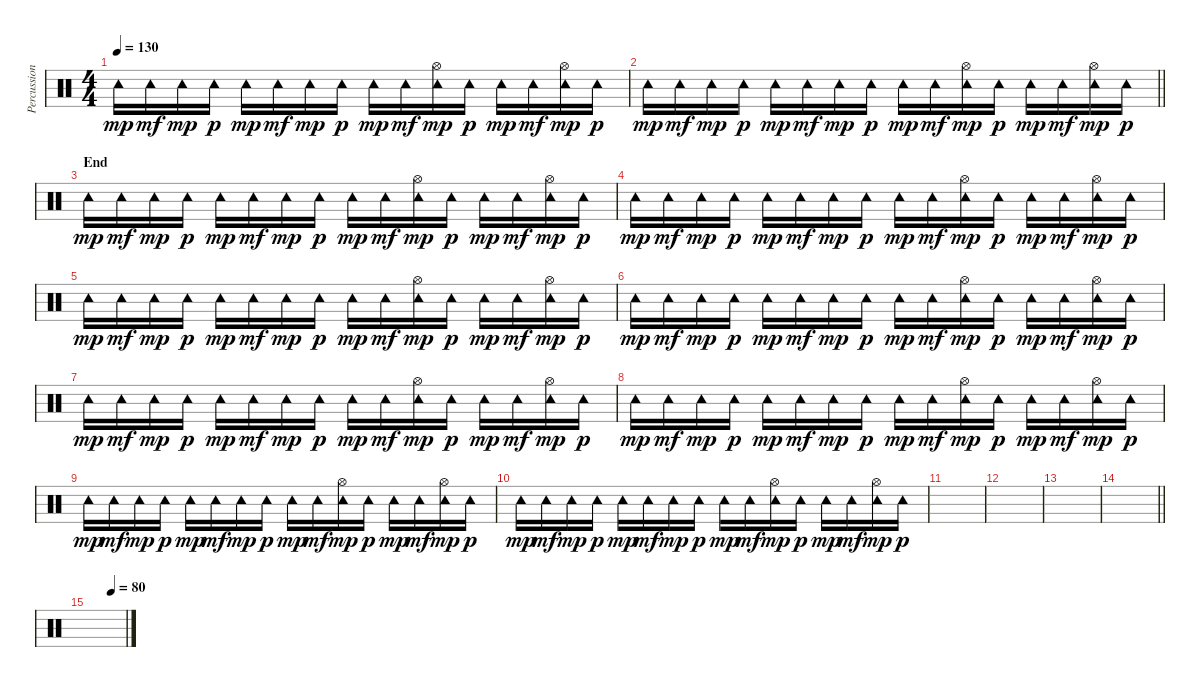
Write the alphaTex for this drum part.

\track ("Percussion (Programmed)" "Percussion") {instrument percussion}
\staff {score}
\articulation defaults
\ts (4 4)
\tempo 130
\clef neutral
\ks c "Tambourine (hit)".16{dy mp} "Tambourine (hit)".16{dy mf} "Tambourine (hit)".16{dy mp} "Tambourine (hit)".16{dy p} "Tambourine (hit)".16{dy mp} "Tambourine (hit)".16{dy mf} "Tambourine (hit)".16{dy mp} "Tambourine (hit)".16{dy p} "Tambourine (hit)".16{dy mp} "Tambourine (hit)".16{dy mf}
("Tambourine (hit)" "Hi-Hat (open)").16{dy mp} "Tambourine (hit)".16{dy p} "Tambourine (hit)".16{dy mp} "Tambourine (hit)".16{dy mf} ("Tambourine (hit)" "Hi-Hat (open)").16{dy mp} "Tambourine (hit)".16{dy p} |
\barLineRight lightlight "Tambourine (hit)".16{dy mp} "Tambourine (hit)".16{dy mf} "Tambourine (hit)".16{dy mp} "Tambourine (hit)".16{dy p} "Tambourine (hit)".16{dy mp} "Tambourine (hit)".16{dy mf} "Tambourine (hit)".16{dy mp} "Tambourine (hit)".16{dy p} "Tambourine (hit)".16{dy mp} "Tambourine (hit)".16{dy mf}
("Tambourine (hit)" "Hi-Hat (open)").16{dy mp} "Tambourine (hit)".16{dy p} "Tambourine (hit)".16{dy mp} "Tambourine (hit)".16{dy mf} ("Tambourine (hit)" "Hi-Hat (open)").16{dy mp} "Tambourine (hit)".16{dy p} |
\section ("" "End")
"Tambourine (hit)".16{dy mp} "Tambourine (hit)".16{dy mf} "Tambourine (hit)".16{dy mp} "Tambourine (hit)".16{dy p} "Tambourine (hit)".16{dy mp} "Tambourine (hit)".16{dy mf} "Tambourine (hit)".16{dy mp} "Tambourine (hit)".16{dy p} "Tambourine (hit)".16{dy mp} "Tambourine (hit)".16{dy mf} ("Tambourine (hit)" "Hi-Hat (open)").16{dy mp} "Tambourine (hit)".16{dy p} "Tambourine (hit)".16{dy mp} "Tambourine (hit)".16{dy mf} ("Tambourine (hit)" "Hi-Hat (open)").16{dy mp} "Tambourine (hit)".16{dy p} |
"Tambourine (hit)".16{dy mp} "Tambourine (hit)".16{dy mf} "Tambourine (hit)".16{dy mp} "Tambourine (hit)".16{dy p} "Tambourine (hit)".16{dy mp} "Tambourine (hit)".16{dy mf} "Tambourine (hit)".16{dy mp} "Tambourine (hit)".16{dy p} "Tambourine (hit)".16{dy mp} "Tambourine (hit)".16{dy mf} ("Tambourine (hit)" "Hi-Hat (open)").16{dy mp} "Tambourine (hit)".16{dy p} "Tambourine (hit)".16{dy mp} "Tambourine (hit)".16{dy mf} ("Tambourine (hit)" "Hi-Hat (open)").16{dy mp} "Tambourine (hit)".16{dy p} |
"Tambourine (hit)".16{dy mp} "Tambourine (hit)".16{dy mf} "Tambourine (hit)".16{dy mp} "Tambourine (hit)".16{dy p} "Tambourine (hit)".16{dy mp} "Tambourine (hit)".16{dy mf} "Tambourine (hit)".16{dy mp} "Tambourine (hit)".16{dy p} "Tambourine (hit)".16{dy mp} "Tambourine (hit)".16{dy mf} ("Tambourine (hit)" "Hi-Hat (open)").16{dy mp} "Tambourine (hit)".16{dy p} "Tambourine (hit)".16{dy mp} "Tambourine (hit)".16{dy mf} ("Tambourine (hit)" "Hi-Hat (open)").16{dy mp} "Tambourine (hit)".16{dy p} |
"Tambourine (hit)".16{dy mp} "Tambourine (hit)".16{dy mf} "Tambourine (hit)".16{dy mp} "Tambourine (hit)".16{dy p} "Tambourine (hit)".16{dy mp} "Tambourine (hit)".16{dy mf} "Tambourine (hit)".16{dy mp} "Tambourine (hit)".16{dy p} "Tambourine (hit)".16{dy mp} "Tambourine (hit)".16{dy mf} ("Tambourine (hit)" "Hi-Hat (open)").16{dy mp} "Tambourine (hit)".16{dy p} "Tambourine (hit)".16{dy mp} "Tambourine (hit)".16{dy mf} ("Tambourine (hit)" "Hi-Hat (open)").16{dy mp} "Tambourine (hit)".16{dy p} |
"Tambourine (hit)".16{dy mp} "Tambourine (hit)".16{dy mf} "Tambourine (hit)".16{dy mp} "Tambourine (hit)".16{dy p} "Tambourine (hit)".16{dy mp} "Tambourine (hit)".16{dy mf} "Tambourine (hit)".16{dy mp} "Tambourine (hit)".16{dy p} "Tambourine (hit)".16{dy mp} "Tambourine (hit)".16{dy mf} ("Tambourine (hit)" "Hi-Hat (open)").16{dy mp} "Tambourine (hit)".16{dy p} "Tambourine (hit)".16{dy mp} "Tambourine (hit)".16{dy mf} ("Tambourine (hit)" "Hi-Hat (open)").16{dy mp} "Tambourine (hit)".16{dy p} |
"Tambourine (hit)".16{dy mp} "Tambourine (hit)".16{dy mf} "Tambourine (hit)".16{dy mp} "Tambourine (hit)".16{dy p} "Tambourine (hit)".16{dy mp} "Tambourine (hit)".16{dy mf} "Tambourine (hit)".16{dy mp} "Tambourine (hit)".16{dy p} "Tambourine (hit)".16{dy mp} "Tambourine (hit)".16{dy mf} ("Tambourine (hit)" "Hi-Hat (open)").16{dy mp} "Tambourine (hit)".16{dy p} "Tambourine (hit)".16{dy mp} "Tambourine (hit)".16{dy mf} ("Tambourine (hit)" "Hi-Hat (open)").16{dy mp} "Tambourine (hit)".16{dy p} |
"Tambourine (hit)".16{dy mp} "Tambourine (hit)".16{dy mf} "Tambourine (hit)".16{dy mp} "Tambourine (hit)".16{dy p} "Tambourine (hit)".16{dy mp} "Tambourine (hit)".16{dy mf} "Tambourine (hit)".16{dy mp} "Tambourine (hit)".16{dy p} "Tambourine (hit)".16{dy mp} "Tambourine (hit)".16{dy mf} ("Tambourine (hit)" "Hi-Hat (open)").16{dy mp} "Tambourine (hit)".16{dy p} "Tambourine (hit)".16{dy mp} "Tambourine (hit)".16{dy mf} ("Tambourine (hit)" "Hi-Hat (open)").16{dy mp} "Tambourine (hit)".16{dy p} |
"Tambourine (hit)".16{dy mp} "Tambourine (hit)".16{dy mf} "Tambourine (hit)".16{dy mp} "Tambourine (hit)".16{dy p} "Tambourine (hit)".16{dy mp} "Tambourine (hit)".16{dy mf} "Tambourine (hit)".16{dy mp} "Tambourine (hit)".16{dy p} "Tambourine (hit)".16{dy mp} "Tambourine (hit)".16{dy mf} ("Tambourine (hit)" "Hi-Hat (open)").16{dy mp} "Tambourine (hit)".16{dy p} "Tambourine (hit)".16{dy mp} "Tambourine (hit)".16{dy mf} ("Tambourine (hit)" "Hi-Hat (open)").16{dy mp} "Tambourine (hit)".16{dy p} |
|
|
|
\barLineRight lightlight
|
\tempo (80 0.625)
